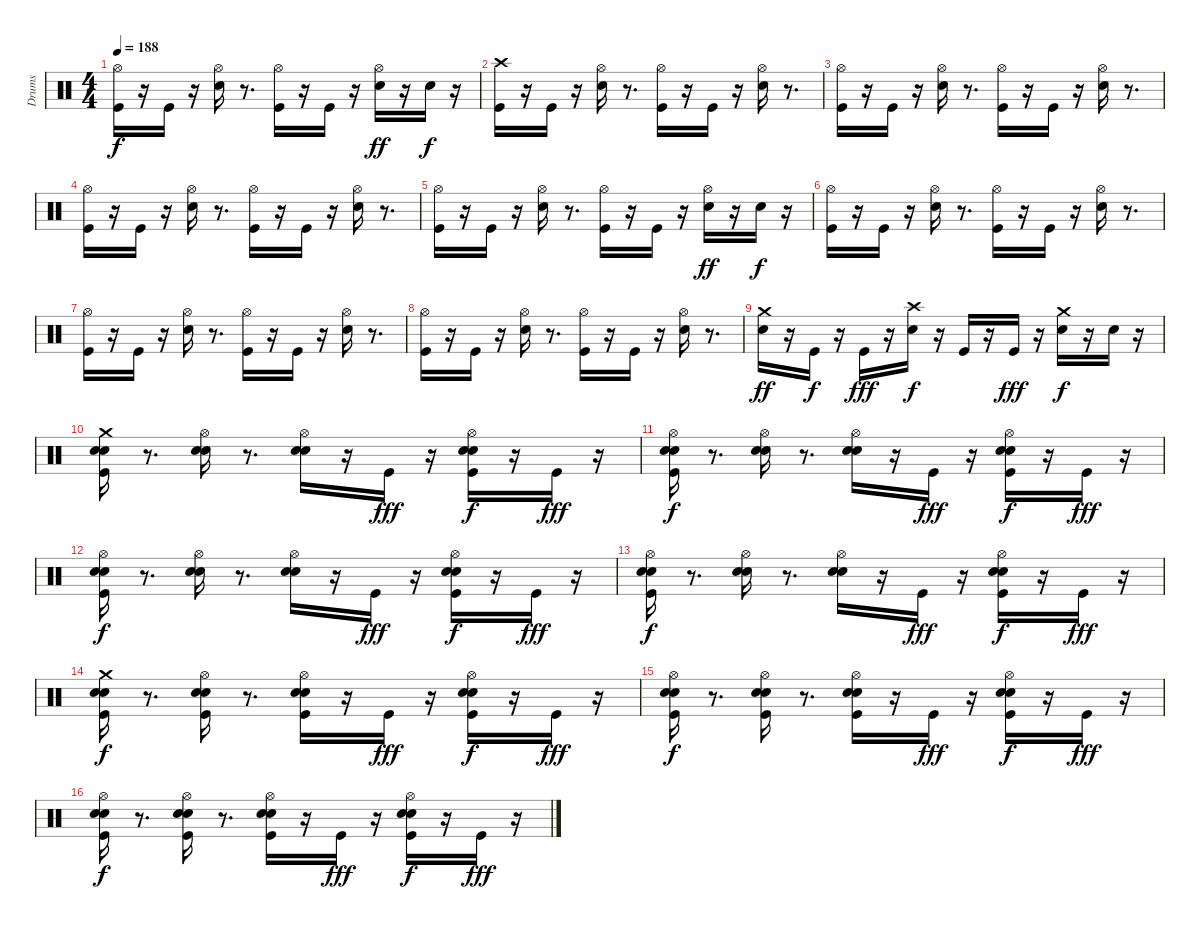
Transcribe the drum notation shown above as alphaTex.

\track ("Drums" "Drums") {instrument percussion}
\staff {score}
\articulation defaults
\ts (4 4)
\tempo 188
\clef neutral
\ks c
("Hi-Hat (open)" "Kick (hit)").16{dy f} r.16 "Kick (hit)".16 r.16 ("Hi-Hat (open)" "Snare (hit) 2").16 r.8{d} ("Hi-Hat (open)" "Kick (hit)").16 r.16 "Kick (hit)".16 r.16 ("Snare (hit) 2" "Hi-Hat (open)").16{dy ff} r.16 "Snare (hit) 2".16{dy f} r.16 |
("Crash high (hit)" "Kick (hit)").16 r.16 "Kick (hit)".16 r.16 ("Hi-Hat (open)" "Snare (hit) 2").16 r.8{d} ("Hi-Hat (open)" "Kick (hit)").16 r.16 "Kick (hit)".16 r.16 ("Hi-Hat (open)" "Snare (hit) 2").16 r.8{d} |
("Hi-Hat (open)" "Kick (hit)").16 r.16 "Kick (hit)".16 r.16 ("Hi-Hat (open)" "Snare (hit) 2").16 r.8{d} ("Hi-Hat (open)" "Kick (hit)").16 r.16 "Kick (hit)".16 r.16 ("Hi-Hat (open)" "Snare (hit) 2").16 r.8{d} |
("Hi-Hat (open)" "Kick (hit)").16 r.16 "Kick (hit)".16 r.16 ("Hi-Hat (open)" "Snare (hit) 2").16 r.8{d} ("Hi-Hat (open)" "Kick (hit)").16 r.16 "Kick (hit)".16 r.16 ("Hi-Hat (open)" "Snare (hit) 2").16 r.8{d} |
("Hi-Hat (open)" "Kick (hit)").16 r.16 "Kick (hit)".16 r.16 ("Hi-Hat (open)" "Snare (hit) 2").16 r.8{d} ("Hi-Hat (open)" "Kick (hit)").16 r.16 "Kick (hit)".16 r.16 ("Snare (hit) 2" "Hi-Hat (open)").16{dy ff} r.16 "Snare (hit) 2".16{dy f} r.16 |
("Hi-Hat (open)" "Kick (hit)").16 r.16 "Kick (hit)".16 r.16 ("Hi-Hat (open)" "Snare (hit) 2").16 r.8{d} ("Hi-Hat (open)" "Kick (hit)").16 r.16 "Kick (hit)".16 r.16 ("Hi-Hat (open)" "Snare (hit) 2").16 r.8{d} |
("Hi-Hat (open)" "Kick (hit)").16 r.16 "Kick (hit)".16 r.16 ("Hi-Hat (open)" "Snare (hit) 2").16 r.8{d} ("Hi-Hat (open)" "Kick (hit)").16 r.16 "Kick (hit)".16 r.16 ("Hi-Hat (open)" "Snare (hit) 2").16 r.8{d} |
("Hi-Hat (open)" "Kick (hit)").16 r.16 "Kick (hit)".16 r.16 ("Hi-Hat (open)" "Snare (hit) 2").16 r.8{d} ("Hi-Hat (open)" "Kick (hit)").16 r.16 "Kick (hit)".16 r.16 ("Hi-Hat (open)" "Snare (hit) 2").16 r.8{d} |
("Snare (hit) 2" "Crash medium (hit)").16{dy ff} r.16 "Kick (hit)".16{dy f} r.16 "Kick (hit)".16{dy fff} r.16 ("Crash high (hit)" "Snare (hit) 2").16{dy f} r.16 "Kick (hit)".16 r.16 "Kick (hit)".16{dy fff} r.16 ("Crash medium (hit)" "Snare (hit) 2").16{dy f} r.16 "Snare (hit) 2".16 r.16 |
("Crash medium (hit)" "Snare (hit) 2" "Kick (hit)" "Snare (hit) 2").16 r.8{d} ("Hi-Hat (open)" "Snare (hit) 2" "Snare (hit) 2").16 r.8{d} ("Hi-Hat (open)" "Snare (hit) 2" "Snare (hit) 2").16 r.16 "Kick (hit)".16{dy fff} r.16 ("Hi-Hat (open)" "Snare (hit) 2" "Kick (hit)" "Snare (hit) 2").16{dy f} r.16 "Kick (hit)".16{dy fff} r.16 |
("Hi-Hat (open)" "Snare (hit) 2" "Kick (hit)" "Snare (hit) 2").16{dy f} r.8{d} ("Hi-Hat (open)" "Snare (hit) 2" "Snare (hit) 2").16 r.8{d} ("Hi-Hat (open)" "Snare (hit) 2" "Snare (hit) 2").16 r.16 "Kick (hit)".16{dy fff} r.16 ("Hi-Hat (open)" "Snare (hit) 2" "Kick (hit)" "Snare (hit) 2").16{dy f} r.16 "Kick (hit)".16{dy fff} r.16 |
("Hi-Hat (open)" "Snare (hit) 2" "Kick (hit)" "Snare (hit) 2").16{dy f} r.8{d} ("Hi-Hat (open)" "Snare (hit) 2" "Snare (hit) 2").16 r.8{d} ("Hi-Hat (open)" "Snare (hit) 2" "Snare (hit) 2").16 r.16 "Kick (hit)".16{dy fff} r.16 ("Hi-Hat (open)" "Snare (hit) 2" "Kick (hit)" "Snare (hit) 2").16{dy f} r.16 "Kick (hit)".16{dy fff} r.16 |
("Hi-Hat (open)" "Snare (hit) 2" "Kick (hit)" "Snare (hit) 2").16{dy f} r.8{d} ("Hi-Hat (open)" "Snare (hit) 2" "Snare (hit) 2").16 r.8{d} ("Hi-Hat (open)" "Snare (hit) 2" "Snare (hit) 2").16 r.16 "Kick (hit)".16{dy fff} r.16 ("Hi-Hat (open)" "Snare (hit) 2" "Kick (hit)" "Snare (hit) 2").16{dy f} r.16 "Kick (hit)".16{dy fff} r.16 |
("Crash medium (hit)" "Snare (hit) 2" "Kick (hit)" "Snare (hit) 2").16{dy f} r.8{d} ("Hi-Hat (open)" "Snare (hit) 2" "Kick (hit)" "Snare (hit) 2").16 r.8{d} ("Hi-Hat (open)" "Snare (hit) 2" "Kick (hit)" "Snare (hit) 2").16 r.16 "Kick (hit)".16{dy fff} r.16 ("Hi-Hat (open)" "Snare (hit) 2" "Kick (hit)" "Snare (hit) 2").16{dy f} r.16 "Kick (hit)".16{dy fff} r.16 |
("Hi-Hat (open)" "Snare (hit) 2" "Kick (hit)" "Snare (hit) 2").16{dy f} r.8{d} ("Hi-Hat (open)" "Snare (hit) 2" "Kick (hit)" "Snare (hit) 2").16 r.8{d} ("Hi-Hat (open)" "Snare (hit) 2" "Kick (hit)" "Snare (hit) 2").16 r.16 "Kick (hit)".16{dy fff} r.16 ("Hi-Hat (open)" "Snare (hit) 2" "Kick (hit)" "Snare (hit) 2").16{dy f} r.16 "Kick (hit)".16{dy fff} r.16 |
("Hi-Hat (open)" "Snare (hit) 2" "Kick (hit)" "Snare (hit) 2").16{dy f} r.8{d} ("Hi-Hat (open)" "Snare (hit) 2" "Kick (hit)" "Snare (hit) 2").16 r.8{d} ("Hi-Hat (open)" "Snare (hit) 2" "Kick (hit)" "Snare (hit) 2").16 r.16 "Kick (hit)".16{dy fff} r.16 ("Hi-Hat (open)" "Snare (hit) 2" "Kick (hit)" "Snare (hit) 2").16{dy f} r.16 "Kick (hit)".16{dy fff} r.16
